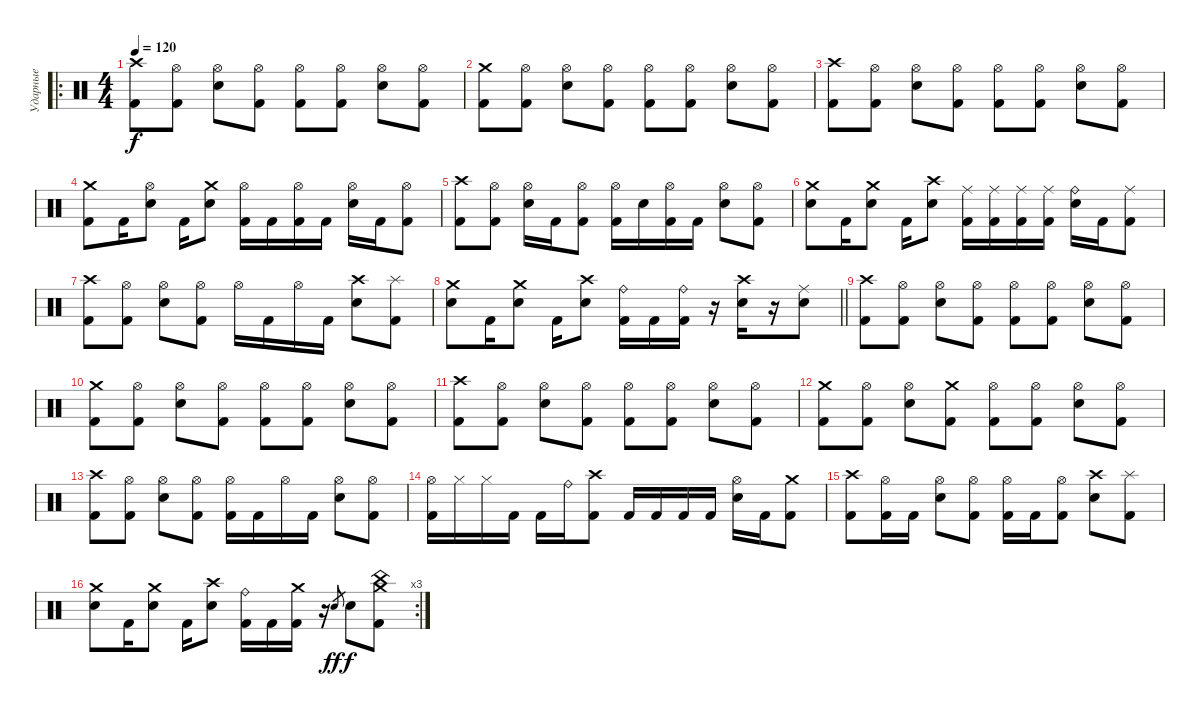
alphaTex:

\track ("Ударные" "Ударные") {instrument percussion}
\staff {score}
\articulation defaults
\ro
\ts (4 4)
\tempo 120
\clef neutral
\ks c
("Crash high (hit)" "Kick (hit) 2").8{dy f} ("Hi-Hat (open)" "Kick (hit) 2").8 ("Hi-Hat (open)" "Electric Snare (hit)").8 ("Hi-Hat (open)" "Kick (hit) 2").8 ("Hi-Hat (open)" "Kick (hit) 2").8 ("Hi-Hat (open)" "Kick (hit) 2").8 ("Hi-Hat (open)" "Electric Snare (hit)").8 ("Hi-Hat (open)" "Kick (hit) 2").8 |
("Crash medium (hit)" "Kick (hit) 2").8 ("Hi-Hat (open)" "Kick (hit) 2").8 ("Hi-Hat (open)" "Electric Snare (hit)").8 ("Hi-Hat (open)" "Kick (hit) 2").8 ("Hi-Hat (open)" "Kick (hit) 2").8 ("Hi-Hat (open)" "Kick (hit) 2").8 ("Hi-Hat (open)" "Electric Snare (hit)").8 ("Hi-Hat (open)" "Kick (hit) 2").8 |
("Crash high (hit)" "Kick (hit) 2").8 ("Hi-Hat (open)" "Kick (hit) 2").8 ("Hi-Hat (open)" "Electric Snare (hit)").8 ("Hi-Hat (open)" "Kick (hit) 2").8 ("Hi-Hat (open)" "Kick (hit) 2").8 ("Hi-Hat (open)" "Kick (hit) 2").8 ("Hi-Hat (open)" "Electric Snare (hit)").8 ("Hi-Hat (open)" "Kick (hit) 2").8 |
("Crash medium (hit)" "Kick (hit) 2").8 "Kick (hit) 2".16 ("Hi-Hat (open)" "Electric Snare (hit)").8 "Kick (hit) 2".16 ("Crash medium (hit)" "Electric Snare (hit)").8 ("Hi-Hat (open)" "Kick (hit) 2").16 "Kick (hit) 2".16 ("Hi-Hat (open)" "Kick (hit) 2").16 "Kick (hit) 2".16 ("Hi-Hat (open)" "Electric Snare (hit)").16 "Kick (hit) 2".16 ("Hi-Hat (open)" "Kick (hit) 2").8 |
("Crash high (hit)" "Kick (hit) 2").8 ("Hi-Hat (open)" "Kick (hit) 2").8 ("Hi-Hat (open)" "Electric Snare (hit)").16 "Kick (hit) 2".16 ("Hi-Hat (open)" "Kick (hit) 2").8 ("Hi-Hat (open)" "Kick (hit) 2").16 "Electric Snare (hit)".16 ("Hi-Hat (open)" "Kick (hit) 2").16 "Kick (hit) 2".16 ("Hi-Hat (open)" "Electric Snare (hit)").8 ("Hi-Hat (open)" "Kick (hit) 2").8 |
("Crash medium (hit)" "Electric Snare (hit)").8 "Kick (hit) 2".16 ("Crash medium (hit)" "Electric Snare (hit)").8 "Kick (hit) 2".16 ("Crash high (hit)" "Electric Snare (hit)").8 ("Ride (middle)" "Kick (hit) 2").16 ("Ride (middle)" "Kick (hit) 2").16 ("Ride (middle)" "Kick (hit) 2").16 ("Ride (middle)" "Kick (hit) 2").16 ("Ride (bell)" "Electric Snare (hit)").16 "Kick (hit) 2".16 ("Ride (middle)" "Kick (hit) 2").8 |
("Crash high (hit)" "Kick (hit) 2").8 ("Hi-Hat (open)" "Kick (hit) 2").8 ("Hi-Hat (open)" "Electric Snare (hit)").8 ("Hi-Hat (open)" "Kick (hit) 2").8 "Hi-Hat (open)".16 "Kick (hit) 2".16 "Hi-Hat (open)".16 "Kick (hit) 2".16 ("Crash high (hit)" "Electric Snare (hit)").8 ("Splash (hit)" "Kick (hit) 2").8 |
\barLineRight lightlight
("Crash medium (hit)" "Electric Snare (hit)").8 "Kick (hit) 2".16 ("Crash medium (hit)" "Electric Snare (hit)").8 "Kick (hit) 2".16 ("Crash high (hit)" "Electric Snare (hit)").8 ("Ride (bell)" "Kick (hit) 2").16 "Kick (hit) 2".16 ("Ride (bell)" "Kick (hit) 2").16 r.16 ("Crash high (hit)" "Electric Snare (hit)").16 r.16 ("Ride (middle)" "Electric Snare (hit)").8 |
("Crash high (hit)" "Kick (hit) 2").8 ("Hi-Hat (open)" "Kick (hit) 2").8 ("Hi-Hat (open)" "Electric Snare (hit)").8 ("Hi-Hat (open)" "Kick (hit) 2").8 ("Hi-Hat (open)" "Kick (hit) 2").8 ("Hi-Hat (open)" "Kick (hit) 2").8 ("Hi-Hat (open)" "Electric Snare (hit)").8 ("Hi-Hat (open)" "Kick (hit) 2").8 |
("Crash medium (hit)" "Kick (hit) 2").8 ("Hi-Hat (open)" "Kick (hit) 2").8 ("Hi-Hat (open)" "Electric Snare (hit)").8 ("Hi-Hat (open)" "Kick (hit) 2").8 ("Hi-Hat (open)" "Kick (hit) 2").8 ("Hi-Hat (open)" "Kick (hit) 2").8 ("Hi-Hat (open)" "Electric Snare (hit)").8 ("Hi-Hat (open)" "Kick (hit) 2").8 |
("Crash high (hit)" "Kick (hit) 2").8 ("Hi-Hat (open)" "Kick (hit) 2").8 ("Hi-Hat (open)" "Electric Snare (hit)").8 ("Hi-Hat (open)" "Kick (hit) 2").8 ("Hi-Hat (open)" "Kick (hit) 2").8 ("Hi-Hat (open)" "Kick (hit) 2").8 ("Hi-Hat (open)" "Electric Snare (hit)").8 ("Hi-Hat (open)" "Kick (hit) 2").8 |
("Crash medium (hit)" "Kick (hit) 2").8 ("Hi-Hat (open)" "Kick (hit) 2").8 ("Hi-Hat (open)" "Electric Snare (hit)").8 ("Crash medium (hit)" "Kick (hit) 2").8 ("Hi-Hat (open)" "Kick (hit) 2").8 ("Hi-Hat (open)" "Kick (hit) 2").8 ("Hi-Hat (open)" "Electric Snare (hit)").8 ("Hi-Hat (open)" "Kick (hit) 2").8 |
("Crash high (hit)" "Kick (hit) 2").8 ("Hi-Hat (open)" "Kick (hit) 2").8 ("Hi-Hat (open)" "Electric Snare (hit)").8 ("Hi-Hat (open)" "Kick (hit) 2").8 ("Hi-Hat (open)" "Kick (hit) 2").16 "Kick (hit) 2".16 "Hi-Hat (open)".16 "Kick (hit) 2".16 ("Hi-Hat (open)" "Electric Snare (hit)").8 ("Hi-Hat (open)" "Kick (hit) 2").8 |
("Hi-Hat (open)" "Kick (hit) 2").16 "Hi-Hat (closed)".16 "Hi-Hat (closed)".16 "Kick (hit) 2".16 "Kick (hit) 2".16 "Ride (bell)".16 ("Crash high (hit)" "Kick (hit) 2").8 "Kick (hit) 2".16 "Kick (hit) 2".16 "Kick (hit) 2".16 "Kick (hit) 2".16 ("Hi-Hat (open)" "Electric Snare (hit)").16 "Kick (hit) 2".16 ("Crash medium (hit)" "Kick (hit) 2").8 |
("Crash high (hit)" "Kick (hit) 2").8 ("Hi-Hat (open)" "Kick (hit) 2").16 "Kick (hit) 2".16 ("Hi-Hat (open)" "Electric Snare (hit)").8 ("Hi-Hat (open)" "Kick (hit) 2").8 ("Hi-Hat (open)" "Kick (hit) 2").16 "Kick (hit) 2".16 ("Hi-Hat (open)" "Kick (hit) 2").8 ("Crash high (hit)" "Electric Snare (hit)").8 ("Splash (hit)" "Kick (hit) 2").8 |
\rc 3
("Crash medium (hit)" "Electric Snare (hit)").8 "Kick (hit) 2".16 ("Crash medium (hit)" "Electric Snare (hit)").8 "Kick (hit) 2".16 ("Crash high (hit)" "Electric Snare (hit)").8 ("Ride (bell)" "Kick (hit) 2").16 "Kick (hit) 2".16 ("Crash medium (hit)" "Kick (hit) 2").16 r.16 "Electric Snare (hit)".8{gr dy ff} "Electric Snare (hit)".8{dy f} ("Crash medium (hit)" "China (hit)" "Kick (hit) 2").8
